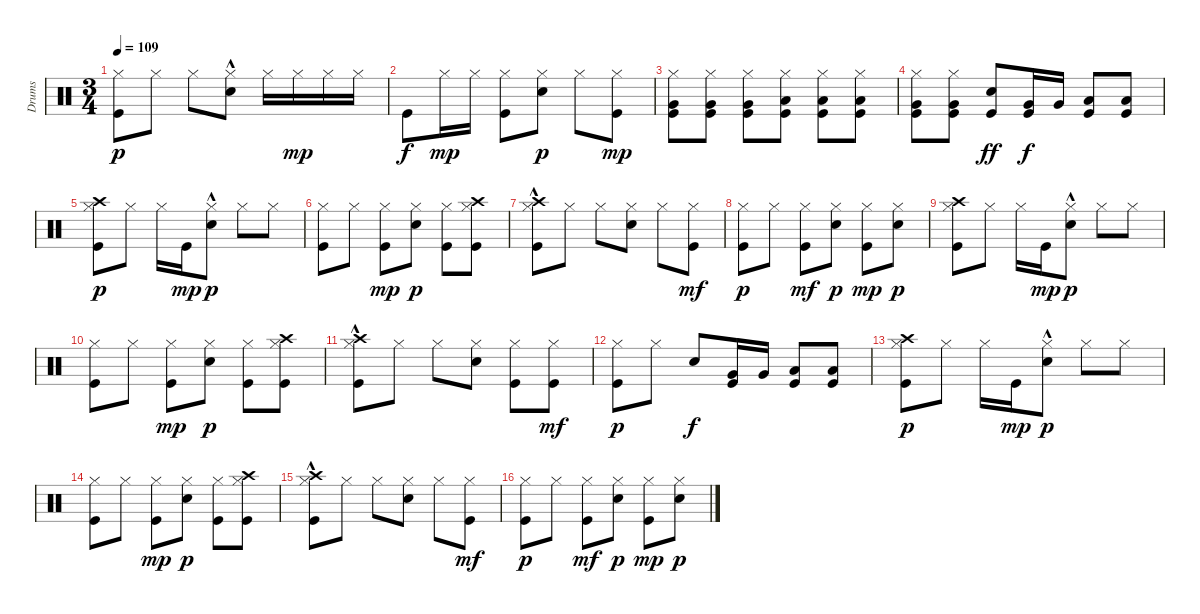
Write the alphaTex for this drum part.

\track ("Drums" "Drums") {instrument percussion}
\staff {score}
\articulation defaults
\ts (3 4)
\tempo 109
\clef neutral
\ks c
("Hi-Hat (closed)" "Kick (hit)").8{dy p} "Hi-Hat (closed)".8 "Hi-Hat (closed)".8 ("Hi-Hat (closed)" "Electric Snare (hit)"{hac}).8 "Hi-Hat (closed)".16 "Hi-Hat (closed)".16{dy mp} "Hi-Hat (closed)".16 "Hi-Hat (closed)".16 |
"Kick (hit)".8{dy f} "Hi-Hat (closed)".16{dy mp} "Hi-Hat (closed)".16 ("Kick (hit)" "Hi-Hat (closed)").8 ("Hi-Hat (closed)" "Electric Snare (hit)").8{dy p} "Hi-Hat (closed)".8 ("Hi-Hat (closed)" "Kick (hit)").8{dy mp} |
("Hi-Hat (closed)" "Kick (hit)" "Very Low Tom (hit)").8 ("Hi-Hat (closed)" "Kick (hit)" "Very Low Tom (hit)").8 ("Hi-Hat (closed)" "Kick (hit)" "Very Low Tom (hit)").8 ("Hi-Hat (closed)" "Kick (hit)" "Low Floor Tom (hit)").8 ("Hi-Hat (closed)" "Kick (hit)" "Low Floor Tom (hit)").8 ("Hi-Hat (closed)" "Kick (hit)" "Low Floor Tom (hit)").8 |
("Hi-Hat (closed)" "Very Low Tom (hit)" "Kick (hit)").8 ("Hi-Hat (closed)" "Very Low Tom (hit)" "Kick (hit)").8 ("Electric Snare (hit)" "Kick (hit)").8{dy ff} ("Kick (hit)" "Very Low Tom (hit)").16{dy f} "Very Low Tom (hit)".16 ("Kick (hit)" "Low Floor Tom (hit)").8 ("Kick (hit)" "Low Floor Tom (hit)").8 |
("Crash high (hit)" "Hi-Hat (closed)" "Kick (hit)").8{dy p} "Hi-Hat (closed)".8 "Hi-Hat (closed)".16 "Kick (hit)".16{dy mp} ("Hi-Hat (closed)" "Electric Snare (hit)"{hac}).8{dy p} "Hi-Hat (closed)".8 "Hi-Hat (closed)".8 |
("Hi-Hat (closed)" "Kick (hit)").8 "Hi-Hat (closed)".8 ("Hi-Hat (closed)" "Kick (hit)").8{dy mp} ("Hi-Hat (closed)" "Electric Snare (hit)").8{dy p} ("Hi-Hat (closed)" "Kick (hit)").8 ("Crash high (hit)" "Hi-Hat (closed)" "Kick (hit)").8 |
("Crash high (hit)" "Hi-Hat (closed)" "Kick (hit)"{hac}).8 "Hi-Hat (closed)".8 "Hi-Hat (closed)".8 ("Hi-Hat (closed)" "Electric Snare (hit)").8 "Hi-Hat (closed)".8 ("Hi-Hat (closed)" "Kick (hit)").8{dy mf} |
("Hi-Hat (closed)" "Kick (hit)").8{dy p} "Hi-Hat (closed)".8 ("Hi-Hat (closed)" "Kick (hit)").8{dy mf} ("Hi-Hat (closed)" "Electric Snare (hit)").8{dy p} ("Hi-Hat (closed)" "Kick (hit)").8{dy mp} ("Hi-Hat (closed)" "Electric Snare (hit)").8{dy p} |
("Crash high (hit)" "Hi-Hat (closed)" "Kick (hit)").8 "Hi-Hat (closed)".8 "Hi-Hat (closed)".16 "Kick (hit)".16{dy mp} ("Hi-Hat (closed)" "Electric Snare (hit)"{hac}).8{dy p} "Hi-Hat (closed)".8 "Hi-Hat (closed)".8 |
("Hi-Hat (closed)" "Kick (hit)").8 "Hi-Hat (closed)".8 ("Hi-Hat (closed)" "Kick (hit)").8{dy mp} ("Hi-Hat (closed)" "Electric Snare (hit)").8{dy p} ("Hi-Hat (closed)" "Kick (hit)").8 ("Crash high (hit)" "Hi-Hat (closed)" "Kick (hit)").8 |
("Crash high (hit)" "Hi-Hat (closed)" "Kick (hit)"{hac}).8 "Hi-Hat (closed)".8 "Hi-Hat (closed)".8 ("Hi-Hat (closed)" "Electric Snare (hit)").8 ("Hi-Hat (closed)" "Kick (hit)").8 ("Hi-Hat (closed)" "Kick (hit)").8{dy mf} |
("Hi-Hat (closed)" "Kick (hit)").8{dy p} "Hi-Hat (closed)".8 "Electric Snare (hit)".8{dy f} ("Kick (hit)" "Very Low Tom (hit)").16 "Very Low Tom (hit)".16 ("Kick (hit)" "Low Floor Tom (hit)").8 ("Kick (hit)" "Low Floor Tom (hit)").8 |
("Crash high (hit)" "Hi-Hat (closed)" "Kick (hit)").8{dy p} "Hi-Hat (closed)".8 "Hi-Hat (closed)".16 "Kick (hit)".16{dy mp} ("Hi-Hat (closed)" "Electric Snare (hit)"{hac}).8{dy p} "Hi-Hat (closed)".8 "Hi-Hat (closed)".8 |
("Hi-Hat (closed)" "Kick (hit)").8 "Hi-Hat (closed)".8 ("Hi-Hat (closed)" "Kick (hit)").8{dy mp} ("Hi-Hat (closed)" "Electric Snare (hit)").8{dy p} ("Hi-Hat (closed)" "Kick (hit)").8 ("Crash high (hit)" "Hi-Hat (closed)" "Kick (hit)").8 |
("Crash high (hit)" "Hi-Hat (closed)" "Kick (hit)"{hac}).8 "Hi-Hat (closed)".8 "Hi-Hat (closed)".8 ("Hi-Hat (closed)" "Electric Snare (hit)").8 "Hi-Hat (closed)".8 ("Hi-Hat (closed)" "Kick (hit)").8{dy mf} |
("Hi-Hat (closed)" "Kick (hit)").8{dy p} "Hi-Hat (closed)".8 ("Hi-Hat (closed)" "Kick (hit)").8{dy mf} ("Hi-Hat (closed)" "Electric Snare (hit)").8{dy p} ("Hi-Hat (closed)" "Kick (hit)").8{dy mp} ("Hi-Hat (closed)" "Electric Snare (hit)").8{dy p}
